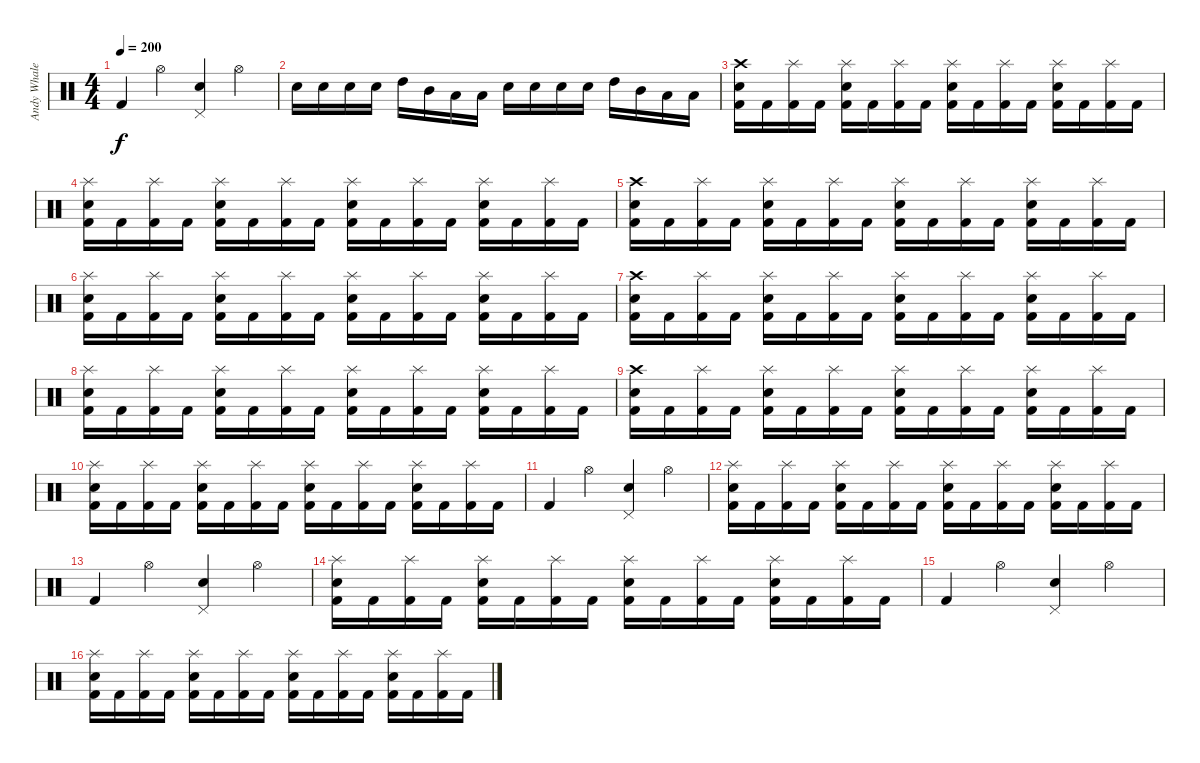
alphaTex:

\track ("Andy Whale" "Andy Whale") {instrument percussion}
\staff {score}
\articulation defaults
\ts (4 4)
\tempo 200
\clef neutral
\ks c "Kick (hit) 2".4{dy f} "Hi-Hat (open)".4
("Pedal Hi-Hat (hit)" "Snare (hit) 2").4 "Hi-Hat (open)".4 |
"Snare (hit) 2".16 "Snare (hit) 2".16 "Snare (hit) 2".16 "Snare (hit) 2".16 "High Tom (hit)".16 "Mid Tom (hit)".16 "Low Tom (hit)".16 "Low Tom (hit)".16 "Snare (hit) 2".16 "Snare (hit) 2".16 "Snare (hit) 2".16 "Snare (hit) 2".16 "High Tom (hit)".16 "Mid Tom (hit)".16 "Low Tom (hit)".16 "Low Tom (hit)".16 |
("Crash high (hit)" "Snare (hit) 2" "Kick (hit) 2").16 "Kick (hit) 2".16 ("Splash (hit)" "Kick (hit) 2").16 "Kick (hit) 2".16 ("Splash (hit)" "Snare (hit) 2" "Kick (hit) 2").16 "Kick (hit) 2".16 ("Splash (hit)" "Kick (hit) 2").16 "Kick (hit) 2".16 ("Splash (hit)" "Snare (hit) 2" "Kick (hit) 2").16 "Kick (hit) 2".16 ("Splash (hit)" "Kick (hit) 2").16 "Kick (hit) 2".16 ("Splash (hit)" "Snare (hit) 2" "Kick (hit) 2").16 "Kick (hit) 2".16 ("Splash (hit)" "Kick (hit) 2").16 "Kick (hit) 2".16 |
("Splash (hit)" "Snare (hit) 2" "Kick (hit) 2").16 "Kick (hit) 2".16 ("Splash (hit)" "Kick (hit) 2").16 "Kick (hit) 2".16 ("Splash (hit)" "Snare (hit) 2" "Kick (hit) 2").16 "Kick (hit) 2".16 ("Splash (hit)" "Kick (hit) 2").16 "Kick (hit) 2".16 ("Splash (hit)" "Snare (hit) 2" "Kick (hit) 2").16 "Kick (hit) 2".16 ("Splash (hit)" "Kick (hit) 2").16 "Kick (hit) 2".16 ("Splash (hit)" "Snare (hit) 2" "Kick (hit) 2").16 "Kick (hit) 2".16 ("Splash (hit)" "Kick (hit) 2").16 "Kick (hit) 2".16 |
("Crash high (hit)" "Snare (hit) 2" "Kick (hit) 2").16 "Kick (hit) 2".16 ("Splash (hit)" "Kick (hit) 2").16 "Kick (hit) 2".16 ("Splash (hit)" "Snare (hit) 2" "Kick (hit) 2").16 "Kick (hit) 2".16 ("Splash (hit)" "Kick (hit) 2").16 "Kick (hit) 2".16 ("Splash (hit)" "Snare (hit) 2" "Kick (hit) 2").16 "Kick (hit) 2".16 ("Splash (hit)" "Kick (hit) 2").16 "Kick (hit) 2".16 ("Splash (hit)" "Snare (hit) 2" "Kick (hit) 2").16 "Kick (hit) 2".16 ("Splash (hit)" "Kick (hit) 2").16 "Kick (hit) 2".16 |
("Splash (hit)" "Snare (hit) 2" "Kick (hit) 2").16 "Kick (hit) 2".16 ("Splash (hit)" "Kick (hit) 2").16 "Kick (hit) 2".16 ("Splash (hit)" "Snare (hit) 2" "Kick (hit) 2").16 "Kick (hit) 2".16 ("Splash (hit)" "Kick (hit) 2").16 "Kick (hit) 2".16 ("Splash (hit)" "Snare (hit) 2" "Kick (hit) 2").16 "Kick (hit) 2".16 ("Splash (hit)" "Kick (hit) 2").16 "Kick (hit) 2".16 ("Splash (hit)" "Snare (hit) 2" "Kick (hit) 2").16 "Kick (hit) 2".16 ("Splash (hit)" "Kick (hit) 2").16 "Kick (hit) 2".16 |
("Crash high (hit)" "Snare (hit) 2" "Kick (hit) 2").16 "Kick (hit) 2".16 ("Splash (hit)" "Kick (hit) 2").16 "Kick (hit) 2".16 ("Splash (hit)" "Snare (hit) 2" "Kick (hit) 2").16 "Kick (hit) 2".16 ("Splash (hit)" "Kick (hit) 2").16 "Kick (hit) 2".16 ("Splash (hit)" "Snare (hit) 2" "Kick (hit) 2").16 "Kick (hit) 2".16 ("Splash (hit)" "Kick (hit) 2").16 "Kick (hit) 2".16 ("Splash (hit)" "Snare (hit) 2" "Kick (hit) 2").16 "Kick (hit) 2".16 ("Splash (hit)" "Kick (hit) 2").16 "Kick (hit) 2".16 |
("Splash (hit)" "Snare (hit) 2" "Kick (hit) 2").16 "Kick (hit) 2".16 ("Splash (hit)" "Kick (hit) 2").16 "Kick (hit) 2".16 ("Splash (hit)" "Snare (hit) 2" "Kick (hit) 2").16 "Kick (hit) 2".16 ("Splash (hit)" "Kick (hit) 2").16 "Kick (hit) 2".16 ("Splash (hit)" "Snare (hit) 2" "Kick (hit) 2").16 "Kick (hit) 2".16 ("Splash (hit)" "Kick (hit) 2").16 "Kick (hit) 2".16 ("Splash (hit)" "Snare (hit) 2" "Kick (hit) 2").16 "Kick (hit) 2".16 ("Splash (hit)" "Kick (hit) 2").16 "Kick (hit) 2".16 |
("Crash high (hit)" "Snare (hit) 2" "Kick (hit) 2").16 "Kick (hit) 2".16 ("Splash (hit)" "Kick (hit) 2").16 "Kick (hit) 2".16 ("Splash (hit)" "Snare (hit) 2" "Kick (hit) 2").16 "Kick (hit) 2".16 ("Splash (hit)" "Kick (hit) 2").16 "Kick (hit) 2".16 ("Splash (hit)" "Snare (hit) 2" "Kick (hit) 2").16 "Kick (hit) 2".16 ("Splash (hit)" "Kick (hit) 2").16 "Kick (hit) 2".16 ("Splash (hit)" "Snare (hit) 2" "Kick (hit) 2").16 "Kick (hit) 2".16 ("Splash (hit)" "Kick (hit) 2").16 "Kick (hit) 2".16 |
("Splash (hit)" "Snare (hit) 2" "Kick (hit) 2").16 "Kick (hit) 2".16 ("Splash (hit)" "Kick (hit) 2").16 "Kick (hit) 2".16 ("Splash (hit)" "Snare (hit) 2" "Kick (hit) 2").16 "Kick (hit) 2".16 ("Splash (hit)" "Kick (hit) 2").16 "Kick (hit) 2".16 ("Splash (hit)" "Snare (hit) 2" "Kick (hit) 2").16 "Kick (hit) 2".16 ("Splash (hit)" "Kick (hit) 2").16 "Kick (hit) 2".16 ("Splash (hit)" "Snare (hit) 2" "Kick (hit) 2").16 "Kick (hit) 2".16 ("Splash (hit)" "Kick (hit) 2").16 "Kick (hit) 2".16 |
"Kick (hit) 2".4 "Hi-Hat (open)".4 ("Pedal Hi-Hat (hit)" "Snare (hit) 2").4 "Hi-Hat (open)".4 |
("Splash (hit)" "Snare (hit) 2" "Kick (hit) 2").16 "Kick (hit) 2".16 ("Splash (hit)" "Kick (hit) 2").16 "Kick (hit) 2".16 ("Splash (hit)" "Snare (hit) 2" "Kick (hit) 2").16 "Kick (hit) 2".16 ("Splash (hit)" "Kick (hit) 2").16 "Kick (hit) 2".16 ("Splash (hit)" "Snare (hit) 2" "Kick (hit) 2").16 "Kick (hit) 2".16 ("Splash (hit)" "Kick (hit) 2").16 "Kick (hit) 2".16 ("Splash (hit)" "Snare (hit) 2" "Kick (hit) 2").16 "Kick (hit) 2".16 ("Splash (hit)" "Kick (hit) 2").16 "Kick (hit) 2".16 |
"Kick (hit) 2".4 "Hi-Hat (open)".4 ("Pedal Hi-Hat (hit)" "Snare (hit) 2").4 "Hi-Hat (open)".4 |
("Splash (hit)" "Snare (hit) 2" "Kick (hit) 2").16 "Kick (hit) 2".16 ("Splash (hit)" "Kick (hit) 2").16 "Kick (hit) 2".16 ("Splash (hit)" "Snare (hit) 2" "Kick (hit) 2").16 "Kick (hit) 2".16 ("Splash (hit)" "Kick (hit) 2").16 "Kick (hit) 2".16 ("Splash (hit)" "Snare (hit) 2" "Kick (hit) 2").16 "Kick (hit) 2".16 ("Splash (hit)" "Kick (hit) 2").16 "Kick (hit) 2".16 ("Splash (hit)" "Snare (hit) 2" "Kick (hit) 2").16 "Kick (hit) 2".16 ("Splash (hit)" "Kick (hit) 2").16 "Kick (hit) 2".16 |
"Kick (hit) 2".4 "Hi-Hat (open)".4 ("Pedal Hi-Hat (hit)" "Snare (hit) 2").4 "Hi-Hat (open)".4 |
("Splash (hit)" "Snare (hit) 2" "Kick (hit) 2").16 "Kick (hit) 2".16 ("Splash (hit)" "Kick (hit) 2").16 "Kick (hit) 2".16 ("Splash (hit)" "Snare (hit) 2" "Kick (hit) 2").16 "Kick (hit) 2".16 ("Splash (hit)" "Kick (hit) 2").16 "Kick (hit) 2".16 ("Splash (hit)" "Snare (hit) 2" "Kick (hit) 2").16 "Kick (hit) 2".16 ("Splash (hit)" "Kick (hit) 2").16 "Kick (hit) 2".16 ("Splash (hit)" "Snare (hit) 2" "Kick (hit) 2").16 "Kick (hit) 2".16 ("Splash (hit)" "Kick (hit) 2").16 "Kick (hit) 2".16
